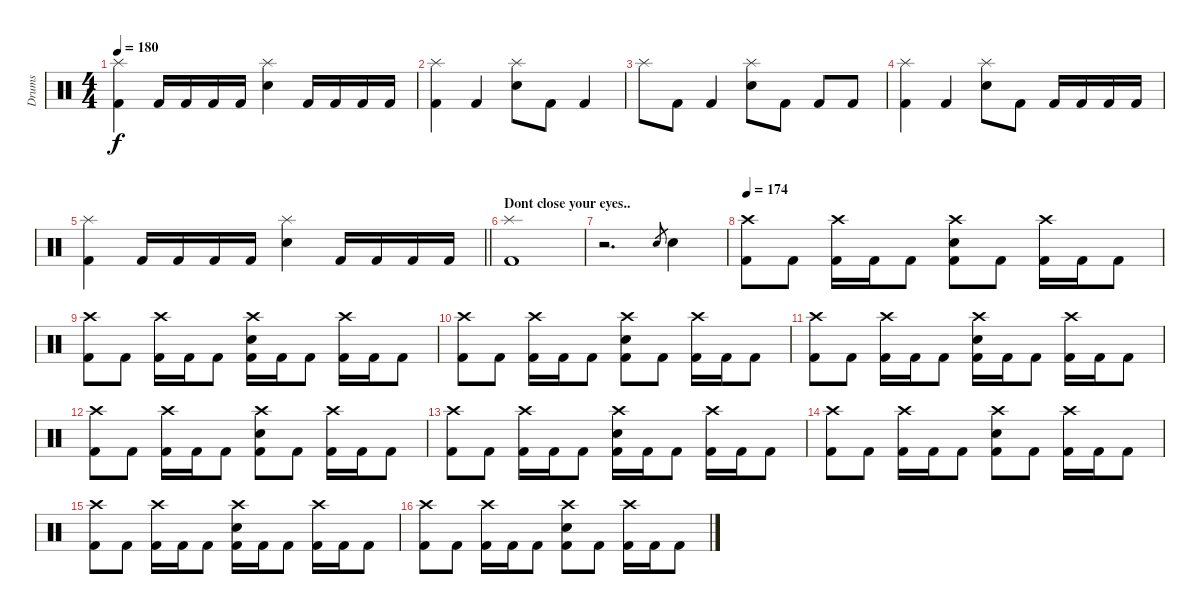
\track ("Drums" "Drums") {instrument percussion}
\staff {score}
\articulation defaults
\ts (4 4)
\tempo 180
\clef neutral
\ks c
("Splash (hit)" "Kick (hit) 2").4{dy f} "Kick (hit) 2".16 "Kick (hit) 2".16 "Kick (hit) 2".16 "Kick (hit) 2".16 ("Splash (hit)" "Electric Snare (hit)").4 "Kick (hit) 2".16 "Kick (hit) 2".16 "Kick (hit) 2".16 "Kick (hit) 2".16 |
("Splash (hit)" "Kick (hit) 2").4 "Kick (hit) 2".4 ("Splash (hit)" "Electric Snare (hit)").8 "Kick (hit) 2".8 "Kick (hit) 2".4 |
"Splash (hit)".8 "Kick (hit) 2".8 "Kick (hit) 2".4 ("Splash (hit)" "Electric Snare (hit)").8 "Kick (hit) 2".8 "Kick (hit) 2".8 "Kick (hit) 2".8 |
("Splash (hit)" "Kick (hit) 2").4 "Kick (hit) 2".4 ("Splash (hit)" "Electric Snare (hit)").8 "Kick (hit) 2".8 "Kick (hit) 2".16 "Kick (hit) 2".16 "Kick (hit) 2".16 "Kick (hit) 2".16 |
\barLineRight lightlight
("Splash (hit)" "Kick (hit) 2").4 "Kick (hit) 2".16 "Kick (hit) 2".16 "Kick (hit) 2".16 "Kick (hit) 2".16 ("Splash (hit)" "Electric Snare (hit)").4 "Kick (hit) 2".16 "Kick (hit) 2".16 "Kick (hit) 2".16 "Kick (hit) 2".16 |
\section ("" "Dont close your eyes..")
("Splash (hit)" "Kick (hit) 2").1 |
r.2{d} "Electric Snare (hit)".8{gr} "Electric Snare (hit)".4 |
\tempo 174
("Crash high (hit)" "Kick (hit) 2").8 "Kick (hit) 2".8 ("Crash high (hit)" "Kick (hit) 2").16 "Kick (hit) 2".16 "Kick (hit) 2".8 ("Crash high (hit)" "Electric Snare (hit)" "Kick (hit) 2").8 "Kick (hit) 2".8 ("Crash high (hit)" "Kick (hit) 2").16 "Kick (hit) 2".16 "Kick (hit) 2".8 |
("Crash high (hit)" "Kick (hit) 2").8 "Kick (hit) 2".8 ("Crash high (hit)" "Kick (hit) 2").16 "Kick (hit) 2".16 "Kick (hit) 2".8 ("Crash high (hit)" "Electric Snare (hit)" "Kick (hit) 2").16 "Kick (hit) 2".16 "Kick (hit) 2".8 ("Crash high (hit)" "Kick (hit) 2").16 "Kick (hit) 2".16 "Kick (hit) 2".8 |
("Crash high (hit)" "Kick (hit) 2").8 "Kick (hit) 2".8 ("Crash high (hit)" "Kick (hit) 2").16 "Kick (hit) 2".16 "Kick (hit) 2".8 ("Crash high (hit)" "Electric Snare (hit)" "Kick (hit) 2").8 "Kick (hit) 2".8 ("Crash high (hit)" "Kick (hit) 2").16 "Kick (hit) 2".16 "Kick (hit) 2".8 |
("Crash high (hit)" "Kick (hit) 2").8 "Kick (hit) 2".8 ("Crash high (hit)" "Kick (hit) 2").16 "Kick (hit) 2".16 "Kick (hit) 2".8 ("Crash high (hit)" "Electric Snare (hit)" "Kick (hit) 2").16 "Kick (hit) 2".16 "Kick (hit) 2".8 ("Crash high (hit)" "Kick (hit) 2").16 "Kick (hit) 2".16 "Kick (hit) 2".8 |
("Crash high (hit)" "Kick (hit) 2").8 "Kick (hit) 2".8 ("Crash high (hit)" "Kick (hit) 2").16 "Kick (hit) 2".16 "Kick (hit) 2".8 ("Crash high (hit)" "Electric Snare (hit)" "Kick (hit) 2").8 "Kick (hit) 2".8 ("Crash high (hit)" "Kick (hit) 2").16 "Kick (hit) 2".16 "Kick (hit) 2".8 |
("Crash high (hit)" "Kick (hit) 2").8 "Kick (hit) 2".8 ("Crash high (hit)" "Kick (hit) 2").16 "Kick (hit) 2".16 "Kick (hit) 2".8 ("Crash high (hit)" "Electric Snare (hit)" "Kick (hit) 2").16 "Kick (hit) 2".16 "Kick (hit) 2".8 ("Crash high (hit)" "Kick (hit) 2").16 "Kick (hit) 2".16 "Kick (hit) 2".8 |
("Crash high (hit)" "Kick (hit) 2").8 "Kick (hit) 2".8 ("Crash high (hit)" "Kick (hit) 2").16 "Kick (hit) 2".16 "Kick (hit) 2".8 ("Crash high (hit)" "Electric Snare (hit)" "Kick (hit) 2").8 "Kick (hit) 2".8 ("Crash high (hit)" "Kick (hit) 2").16 "Kick (hit) 2".16 "Kick (hit) 2".8 |
("Crash high (hit)" "Kick (hit) 2").8 "Kick (hit) 2".8 ("Crash high (hit)" "Kick (hit) 2").16 "Kick (hit) 2".16 "Kick (hit) 2".8 ("Crash high (hit)" "Electric Snare (hit)" "Kick (hit) 2").16 "Kick (hit) 2".16 "Kick (hit) 2".8 ("Crash high (hit)" "Kick (hit) 2").16 "Kick (hit) 2".16 "Kick (hit) 2".8 |
("Crash high (hit)" "Kick (hit) 2").8 "Kick (hit) 2".8 ("Crash high (hit)" "Kick (hit) 2").16 "Kick (hit) 2".16 "Kick (hit) 2".8 ("Crash high (hit)" "Electric Snare (hit)" "Kick (hit) 2").8 "Kick (hit) 2".8 ("Crash high (hit)" "Kick (hit) 2").16 "Kick (hit) 2".16 "Kick (hit) 2".8
